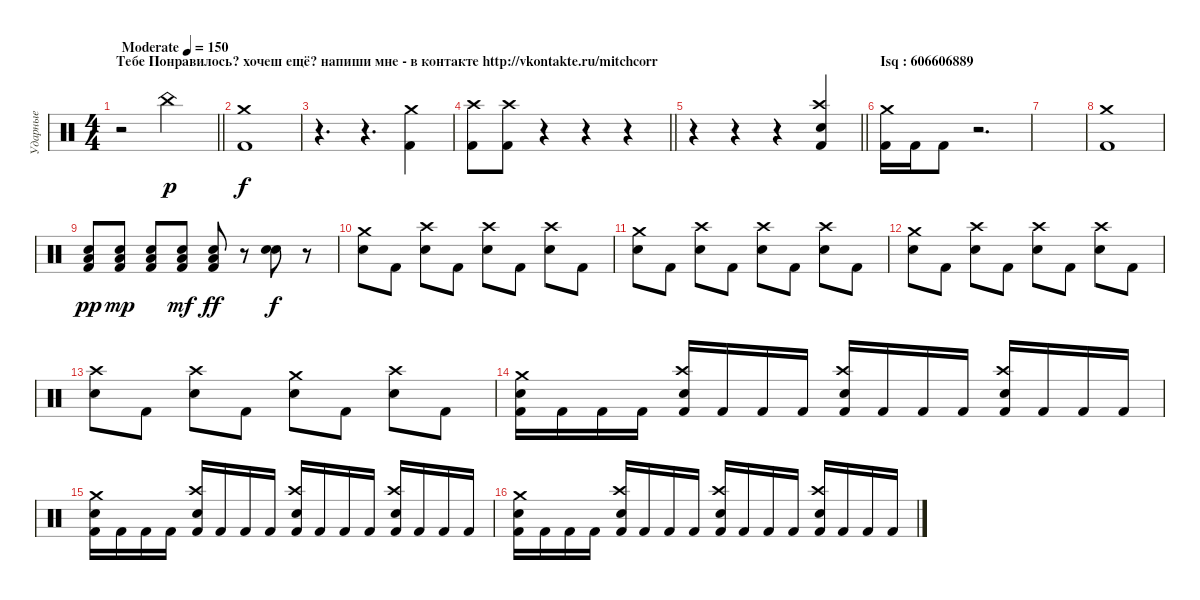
\track ("Ударные" "Ударные") {instrument percussion}
\staff {score}
\articulation defaults
\ts (4 4)
\section ("" "Тебе Понравилось? хочеш ещё? напиши мне - в контакте http://vkontakte.ru/mitchcorr")
\tempo (150 "Moderate")
\clef neutral
\barLineRight lightlight
\ks c
r.2{dy p} "China (hit)".2 |
\section ("" "")
("Crash medium (hit)" "Kick (hit) 2").1{dy f} |
r.4{d} r.4{d} ("Crash medium (hit)" "Kick (hit) 2").4 |
\barLineRight lightlight
("Crash high (hit)" "Kick (hit) 2").8 ("Crash high (hit)" "Kick (hit) 2").8 r.4 r.4 r.4 |
\section ("" "")
\barLineRight lightlight
r.4 r.4 r.4 ("Crash high (hit)" "Electric Snare (hit)" "Kick (hit) 2").4 |
\section ("" "Isq : 606606889")
("Crash medium (hit)" "Kick (hit) 2").16 "Kick (hit) 2".16 "Kick (hit) 2".8 r.2{d} |
|
("Crash medium (hit)" "Kick (hit) 2").1 |
("Low Floor Tom (hit)" "Electric Snare (hit)" "Kick (hit) 2").8{dy pp} ("Low Floor Tom (hit)" "Electric Snare (hit)" "Kick (hit) 2").8{dy mp} ("Low Floor Tom (hit)" "Electric Snare (hit)" "Kick (hit) 2").8 ("Low Floor Tom (hit)" "Electric Snare (hit)" "Kick (hit) 2").8{dy mf} ("Low Floor Tom (hit)" "Electric Snare (hit)" "Kick (hit) 2").8{dy ff} r.8 ("Electric Snare (hit)" "Electric Snare (hit)").8{dy f} r.8 |
("Crash medium (hit)" "Electric Snare (hit)").8 "Kick (hit) 2".8 ("Crash high (hit)" "Electric Snare (hit)").8 "Kick (hit) 2".8 ("Crash high (hit)" "Electric Snare (hit)").8 "Kick (hit) 2".8 ("Crash high (hit)" "Electric Snare (hit)").8 "Kick (hit) 2".8 |
("Crash medium (hit)" "Electric Snare (hit)").8 "Kick (hit) 2".8 ("Crash high (hit)" "Electric Snare (hit)").8 "Kick (hit) 2".8 ("Crash high (hit)" "Electric Snare (hit)").8 "Kick (hit) 2".8 ("Crash high (hit)" "Electric Snare (hit)").8 "Kick (hit) 2".8 |
("Crash medium (hit)" "Electric Snare (hit)").8 "Kick (hit) 2".8 ("Crash high (hit)" "Electric Snare (hit)").8 "Kick (hit) 2".8 ("Crash high (hit)" "Electric Snare (hit)").8 "Kick (hit) 2".8 ("Crash high (hit)" "Electric Snare (hit)").8 "Kick (hit) 2".8 |
("Crash high (hit)" "Electric Snare (hit)").8 "Kick (hit) 2".8 ("Crash high (hit)" "Electric Snare (hit)").8 "Kick (hit) 2".8 ("Crash medium (hit)" "Electric Snare (hit)").8 "Kick (hit) 2".8 ("Crash high (hit)" "Electric Snare (hit)").8 "Kick (hit) 2".8 |
("Crash medium (hit)" "Electric Snare (hit)" "Kick (hit) 2").16 "Kick (hit) 2".16 "Kick (hit) 2".16 "Kick (hit) 2".16 ("Crash high (hit)" "Electric Snare (hit)" "Kick (hit) 2").16 "Kick (hit) 2".16 "Kick (hit) 2".16 "Kick (hit) 2".16 ("Crash high (hit)" "Electric Snare (hit)" "Kick (hit) 2").16 "Kick (hit) 2".16 "Kick (hit) 2".16 "Kick (hit) 2".16 ("Crash high (hit)" "Electric Snare (hit)" "Kick (hit) 2").16 "Kick (hit) 2".16 "Kick (hit) 2".16 "Kick (hit) 2".16 |
("Crash medium (hit)" "Electric Snare (hit)" "Kick (hit) 2").16 "Kick (hit) 2".16 "Kick (hit) 2".16 "Kick (hit) 2".16 ("Crash high (hit)" "Electric Snare (hit)" "Kick (hit) 2").16 "Kick (hit) 2".16 "Kick (hit) 2".16 "Kick (hit) 2".16 ("Crash high (hit)" "Electric Snare (hit)" "Kick (hit) 2").16 "Kick (hit) 2".16 "Kick (hit) 2".16 "Kick (hit) 2".16 ("Crash high (hit)" "Electric Snare (hit)" "Kick (hit) 2").16 "Kick (hit) 2".16 "Kick (hit) 2".16 "Kick (hit) 2".16 |
("Crash medium (hit)" "Electric Snare (hit)" "Kick (hit) 2").16 "Kick (hit) 2".16 "Kick (hit) 2".16 "Kick (hit) 2".16 ("Crash high (hit)" "Electric Snare (hit)" "Kick (hit) 2").16 "Kick (hit) 2".16 "Kick (hit) 2".16 "Kick (hit) 2".16 ("Crash high (hit)" "Electric Snare (hit)" "Kick (hit) 2").16 "Kick (hit) 2".16 "Kick (hit) 2".16 "Kick (hit) 2".16 ("Crash high (hit)" "Electric Snare (hit)" "Kick (hit) 2").16 "Kick (hit) 2".16 "Kick (hit) 2".16 "Kick (hit) 2".16
